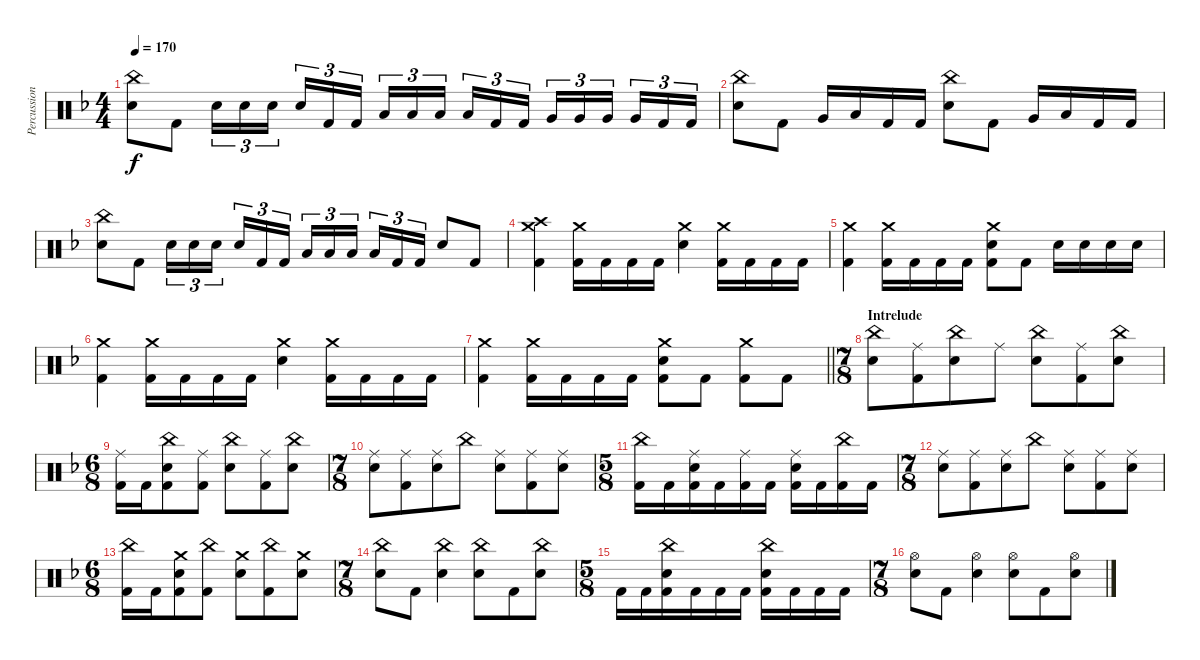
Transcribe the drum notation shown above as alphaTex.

\track ("Percussion" "Percussion") {instrument percussion}
\staff {score}
\articulation defaults
\ts (4 4)
\tempo 170
\clef neutral
\ks dminor
("China (hit)" "Electric Snare (hit)").8{dy f} "Kick (hit) 2".8 "Electric Snare (hit)".16{tu (3 2)} "Electric Snare (hit)".16{tu (3 2)} "Electric Snare (hit)".16{tu (3 2) beam splitsecondary} "Electric Snare (hit)".16{tu (3 2)} "Kick (hit) 2".16{tu (3 2)} "Kick (hit) 2".16{tu (3 2)} "Low Tom (hit)".16{tu (3 2)} "Low Tom (hit)".16{tu (3 2)} "Low Tom (hit)".16{tu (3 2) beam splitsecondary} "Low Tom (hit)".16{tu (3 2)} "Kick (hit) 2".16{tu (3 2)} "Kick (hit) 2".16{tu (3 2)} "Very Low Tom (hit)".16{tu (3 2)} "Very Low Tom (hit)".16{tu (3 2)} "Very Low Tom (hit)".16{tu (3 2) beam splitsecondary} "Very Low Tom (hit)".16{tu (3 2)} "Kick (hit) 2".16{tu (3 2)} "Kick (hit) 2".16{tu (3 2)} |
("China (hit)" "Electric Snare (hit)").8 "Kick (hit) 2".8 "Very Low Tom (hit)".16 "Low Tom (hit)".16 "Kick (hit) 2".16 "Kick (hit) 2".16 ("China (hit)" "Electric Snare (hit)").8 "Kick (hit) 2".8 "Very Low Tom (hit)".16 "Low Tom (hit)".16 "Kick (hit) 2".16 "Kick (hit) 2".16 |
("China (hit)" "Electric Snare (hit)").8 "Kick (hit) 2".8 "Electric Snare (hit)".16{tu (3 2)} "Electric Snare (hit)".16{tu (3 2)} "Electric Snare (hit)".16{tu (3 2) beam splitsecondary} "Electric Snare (hit)".16{tu (3 2)} "Kick (hit) 2".16{tu (3 2)} "Kick (hit) 2".16{tu (3 2)} "Low Tom (hit)".16{tu (3 2)} "Low Tom (hit)".16{tu (3 2)} "Low Tom (hit)".16{tu (3 2) beam splitsecondary} "Low Tom (hit)".16{tu (3 2)} "Kick (hit) 2".16{tu (3 2)} "Kick (hit) 2".16{tu (3 2)} "Electric Snare (hit)".8 "Kick (hit) 2".8 |
("Crash medium (hit)" "Crash high (hit)" "Kick (hit) 2").4 ("Crash medium (hit)" "Kick (hit) 2").16 "Kick (hit) 2".16 "Kick (hit) 2".16 "Kick (hit) 2".16 ("Crash medium (hit)" "Electric Snare (hit)").4 ("Crash medium (hit)" "Kick (hit) 2").16 "Kick (hit) 2".16 "Kick (hit) 2".16 "Kick (hit) 2".16 |
("Crash medium (hit)" "Kick (hit) 2").4 ("Crash medium (hit)" "Kick (hit) 2").16 "Kick (hit) 2".16 "Kick (hit) 2".16 "Kick (hit) 2".16 ("Crash medium (hit)" "Electric Snare (hit)" "Kick (hit) 2").8 "Kick (hit) 2".8 "Electric Snare (hit)".16 "Electric Snare (hit)".16 "Electric Snare (hit)".16 "Electric Snare (hit)".16 |
("Crash medium (hit)" "Kick (hit) 2").4 ("Crash medium (hit)" "Kick (hit) 2").16 "Kick (hit) 2".16 "Kick (hit) 2".16 "Kick (hit) 2".16 ("Crash medium (hit)" "Electric Snare (hit)").4 ("Crash medium (hit)" "Kick (hit) 2").16 "Kick (hit) 2".16 "Kick (hit) 2".16 "Kick (hit) 2".16 |
\barLineRight lightlight
("Crash medium (hit)" "Kick (hit) 2").4 ("Crash medium (hit)" "Kick (hit) 2").16 "Kick (hit) 2".16 "Kick (hit) 2".16 "Kick (hit) 2".16 ("Crash medium (hit)" "Electric Snare (hit)" "Kick (hit) 2").8 "Kick (hit) 2".8 ("Crash medium (hit)" "Kick (hit) 2").8 "Kick (hit) 2".8 |
\ts (7 8)
\section ("" "Intrelude")
("China (hit)" "Electric Snare (hit)").8 ("Ride (middle)" "Kick (hit) 2").8 ("China (hit)" "Electric Snare (hit)").8 "Ride (middle)".8 ("China (hit)" "Electric Snare (hit)").8 ("Ride (middle)" "Kick (hit) 2").8 ("China (hit)" "Electric Snare (hit)").8 |
\ts (6 8)
("Ride (middle)" "Kick (hit) 2").16 "Kick (hit) 2".16 ("China (hit)" "Electric Snare (hit)" "Kick (hit) 2").8 ("Ride (middle)" "Kick (hit) 2").8 ("China (hit)" "Electric Snare (hit)").8 ("Ride (middle)" "Kick (hit) 2").8 ("China (hit)" "Electric Snare (hit)").8 |
\ts (7 8)
("Ride (middle)" "Electric Snare (hit)").8 ("Ride (middle)" "Kick (hit) 2").8 ("Ride (middle)" "Electric Snare (hit)").8 "China (hit)".8 ("Ride (middle)" "Electric Snare (hit)").8 ("Ride (middle)" "Kick (hit) 2").8 ("Ride (middle)" "Electric Snare (hit)").8 |
\ts (5 8)
("China (hit)" "Kick (hit) 2").16 "Kick (hit) 2".16 ("Ride (middle)" "Electric Snare (hit)" "Kick (hit) 2").16 "Kick (hit) 2".16 ("Ride (middle)" "Kick (hit) 2").16 "Kick (hit) 2".16 ("Ride (middle)" "Electric Snare (hit)" "Kick (hit) 2").16 "Kick (hit) 2".16 ("China (hit)" "Kick (hit) 2").16 "Kick (hit) 2".16 |
\ts (7 8)
("Ride (middle)" "Electric Snare (hit)").8 ("Ride (middle)" "Kick (hit) 2").8 ("Ride (middle)" "Electric Snare (hit)").8 "China (hit)".8 ("Ride (middle)" "Electric Snare (hit)").8 ("Ride (middle)" "Kick (hit) 2").8 ("Ride (middle)" "Electric Snare (hit)").8 |
\ts (6 8)
("China (hit)" "Kick (hit) 2").16 "Kick (hit) 2".16 ("Crash medium (hit)" "Electric Snare (hit)" "Kick (hit) 2").8 ("China (hit)" "Kick (hit) 2").8 ("Crash medium (hit)" "Electric Snare (hit)").8 ("China (hit)" "Kick (hit) 2").8 ("Crash medium (hit)" "Electric Snare (hit)").8 |
\ts (7 8)
("China (hit)" "Electric Snare (hit)").8 "Kick (hit) 2".8 ("China (hit)" "Electric Snare (hit)").4 ("China (hit)" "Electric Snare (hit)").8 "Kick (hit) 2".8 ("China (hit)" "Electric Snare (hit)").8 |
\ts (5 8)
"Kick (hit) 2".16 "Kick (hit) 2".16 ("China (hit)" "Electric Snare (hit)" "Kick (hit) 2").16 "Kick (hit) 2".16 "Kick (hit) 2".16 "Kick (hit) 2".16 ("China (hit)" "Electric Snare (hit)" "Kick (hit) 2").16 "Kick (hit) 2".16 "Kick (hit) 2".16 "Kick (hit) 2".16 |
\ts (7 8)
("Hi-Hat (open)" "Electric Snare (hit)").8 "Kick (hit) 2".8 ("Hi-Hat (open)" "Electric Snare (hit)").4 ("Hi-Hat (open)" "Electric Snare (hit)").8 "Kick (hit) 2".8 ("Hi-Hat (open)" "Electric Snare (hit)").8
